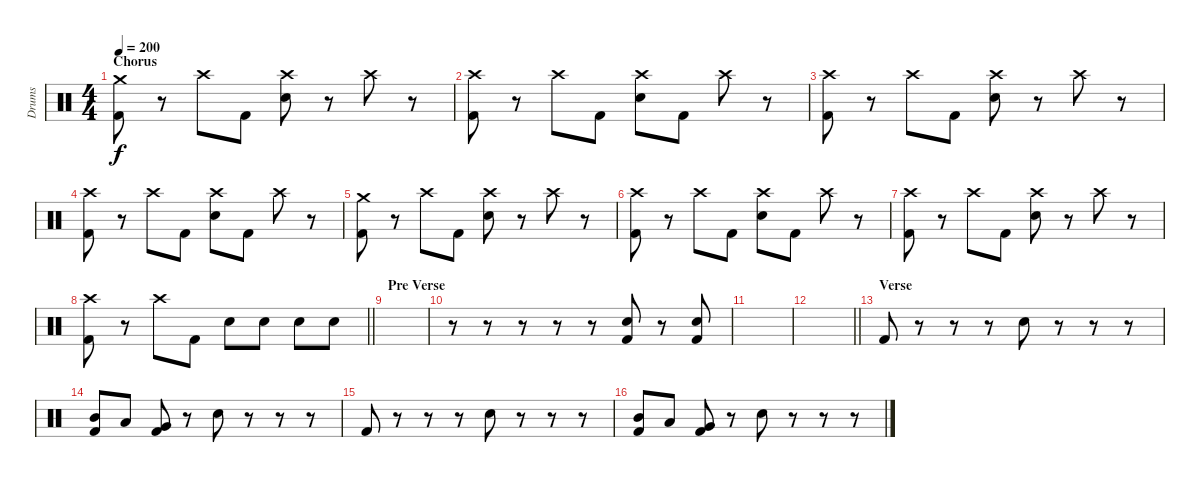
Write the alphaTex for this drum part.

\track ("Drums" "Drums") {instrument percussion}
\staff {score}
\articulation defaults
\ts (4 4)
\section ("" "Chorus")
\tempo 200
\clef neutral
\ks c
("Crash medium (hit)" "Kick (hit) 2").8{dy f} r.8 "Crash high (hit)".8 "Kick (hit) 2".8 ("Crash high (hit)" "Electric Snare (hit)").8 r.8 "Crash high (hit)".8 r.8 |
("Crash high (hit)" "Kick (hit) 2").8 r.8 "Crash high (hit)".8 "Kick (hit) 2".8 ("Crash high (hit)" "Electric Snare (hit)").8 "Kick (hit) 2".8 "Crash high (hit)".8 r.8 |
("Crash high (hit)" "Kick (hit) 2").8 r.8 "Crash high (hit)".8 "Kick (hit) 2".8 ("Crash high (hit)" "Electric Snare (hit)").8 r.8 "Crash high (hit)".8 r.8 |
("Crash high (hit)" "Kick (hit) 2").8 r.8 "Crash high (hit)".8 "Kick (hit) 2".8 ("Crash high (hit)" "Electric Snare (hit)").8 "Kick (hit) 2".8 "Crash high (hit)".8 r.8 |
("Crash medium (hit)" "Kick (hit) 2").8 r.8 "Crash high (hit)".8 "Kick (hit) 2".8 ("Crash high (hit)" "Electric Snare (hit)").8 r.8 "Crash high (hit)".8 r.8 |
("Crash high (hit)" "Kick (hit) 2").8 r.8 "Crash high (hit)".8 "Kick (hit) 2".8 ("Crash high (hit)" "Electric Snare (hit)").8 "Kick (hit) 2".8 "Crash high (hit)".8 r.8 |
("Crash high (hit)" "Kick (hit) 2").8 r.8 "Crash high (hit)".8 "Kick (hit) 2".8 ("Crash high (hit)" "Electric Snare (hit)").8 r.8 "Crash high (hit)".8 r.8 |
\barLineRight lightlight
("Crash high (hit)" "Kick (hit) 2").8 r.8 "Crash high (hit)".8 "Kick (hit) 2".8 "Electric Snare (hit)".8 "Electric Snare (hit)".8 "Electric Snare (hit)".8 "Electric Snare (hit)".8 |
\section ("" "Pre Verse")
|
r.8 r.8 r.8 r.8 r.8 ("Electric Snare (hit)" "Kick (hit) 2").8 r.8 ("Electric Snare (hit)" "Kick (hit) 2").8 |
|
\barLineRight lightlight
|
\section ("" "Verse")
"Kick (hit) 2".8 r.8 r.8 r.8 "Electric Snare (hit)".8 r.8 r.8 r.8 |
("Mid Tom (hit)" "Kick (hit) 2").8 "Low Tom (hit)".8 ("Very Low Tom (hit)" "Kick (hit) 2").8 r.8 "Electric Snare (hit)".8 r.8 r.8 r.8 |
"Kick (hit) 2".8 r.8 r.8 r.8 "Electric Snare (hit)".8 r.8 r.8 r.8 |
("Mid Tom (hit)" "Kick (hit) 2").8 "Low Tom (hit)".8 ("Very Low Tom (hit)" "Kick (hit) 2").8 r.8 "Electric Snare (hit)".8 r.8 r.8 r.8
